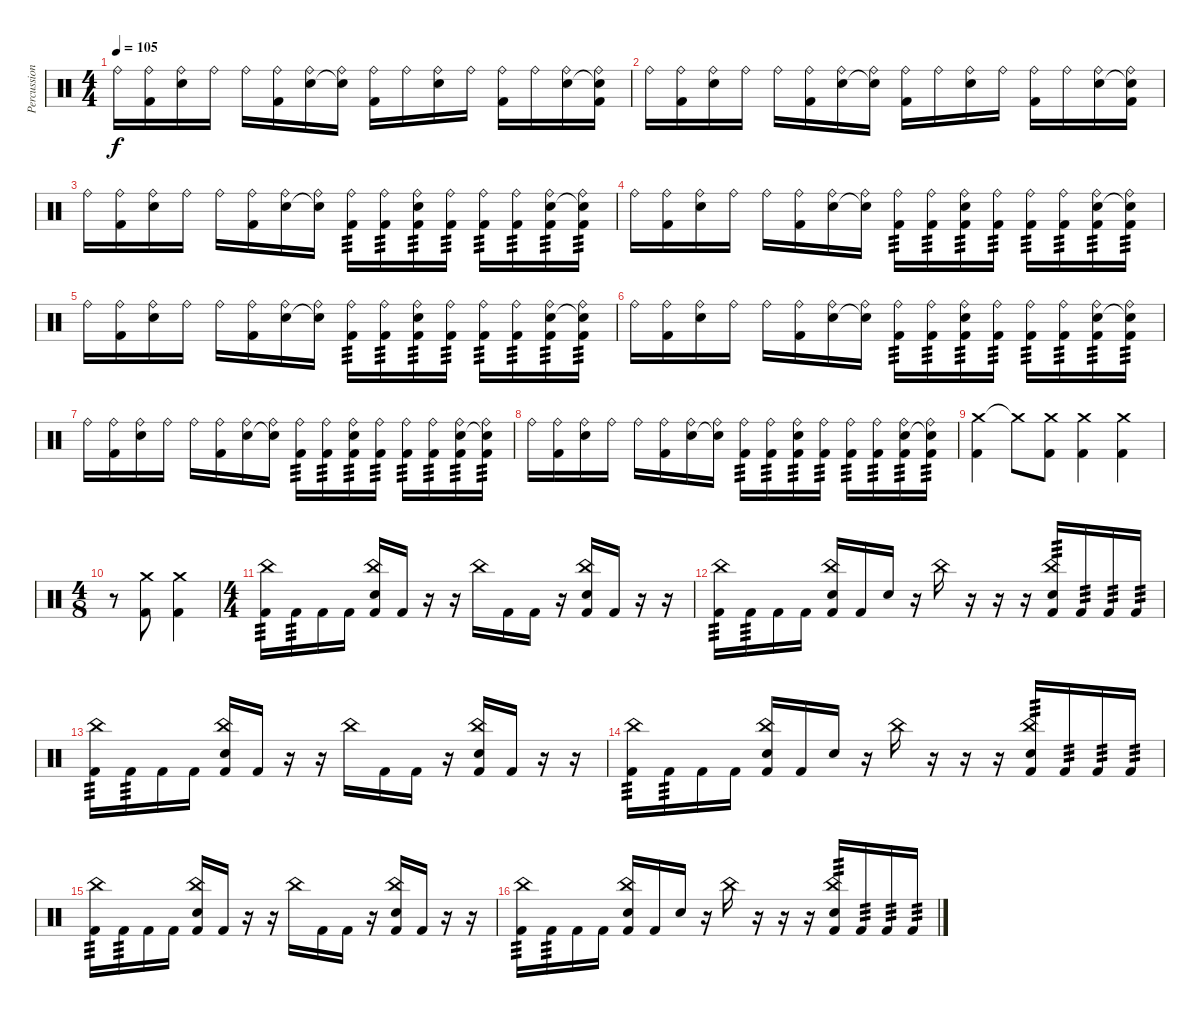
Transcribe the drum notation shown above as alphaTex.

\track ("Percussion" "Percussion") {instrument percussion}
\staff {score}
\articulation defaults
\ts (4 4)
\tempo 105
\clef neutral
\ks c "Ride (bell)".16{dy f}
("Ride (bell)" "Kick (hit) 2").16 ("Ride (bell)" "Snare (hit) 2").16 "Ride (bell)".16 "Ride (bell)".16 ("Ride (bell)" "Kick (hit) 2").16 ("Ride (bell)" "Snare (hit) 2").16 ("Ride (bell)" "Snare (hit)"{t}).16 ("Ride (bell)" "Kick (hit) 2").16 "Ride (bell)".16 ("Ride (bell)" "Snare (hit) 2").16 "Ride (bell)".16 ("Ride (bell)" "Kick (hit) 2").16 "Ride (bell)".16 ("Ride (bell)" "Snare (hit) 2").16 ("Ride (bell)" "Snare (hit)"{t} "Kick (hit) 2").16 |
"Ride (bell)".16 ("Ride (bell)" "Kick (hit) 2").16 ("Ride (bell)" "Snare (hit) 2").16 "Ride (bell)".16 "Ride (bell)".16 ("Ride (bell)" "Kick (hit) 2").16 ("Ride (bell)" "Snare (hit) 2").16 ("Ride (bell)" "Snare (hit)"{t}).16 ("Ride (bell)" "Kick (hit) 2").16 "Ride (bell)".16 ("Ride (bell)" "Snare (hit) 2").16 "Ride (bell)".16 ("Ride (bell)" "Kick (hit) 2").16 "Ride (bell)".16 ("Ride (bell)" "Snare (hit) 2").16 ("Ride (bell)" "Snare (hit)"{t} "Kick (hit) 2").16 |
"Ride (bell)".16 ("Ride (bell)" "Kick (hit) 2").16 ("Ride (bell)" "Snare (hit) 2").16 "Ride (bell)".16 "Ride (bell)".16 ("Ride (bell)" "Kick (hit) 2").16 ("Ride (bell)" "Snare (hit) 2").16 ("Ride (bell)" "Snare (hit)"{t}).16 ("Ride (bell)" "Kick (hit) 2").16{tp 3} ("Ride (bell)" "Kick (hit) 2").16{tp 3} ("Ride (bell)" "Snare (hit) 2" "Kick (hit) 2").16{tp 3} ("Ride (bell)" "Kick (hit) 2").16{tp 3} ("Ride (bell)" "Kick (hit) 2").16{tp 3} ("Ride (bell)" "Kick (hit) 2").16{tp 3} ("Ride (bell)" "Snare (hit) 2" "Kick (hit) 2").16{tp 3} ("Ride (bell)" "Snare (hit)"{t} "Kick (hit) 2").16{tp 3} |
"Ride (bell)".16 ("Ride (bell)" "Kick (hit) 2").16 ("Ride (bell)" "Snare (hit) 2").16 "Ride (bell)".16 "Ride (bell)".16 ("Ride (bell)" "Kick (hit) 2").16 ("Ride (bell)" "Snare (hit) 2").16 ("Ride (bell)" "Snare (hit)"{t}).16 ("Ride (bell)" "Kick (hit) 2").16{tp 3} ("Ride (bell)" "Kick (hit) 2").16{tp 3} ("Ride (bell)" "Snare (hit) 2" "Kick (hit) 2").16{tp 3} ("Ride (bell)" "Kick (hit) 2").16{tp 3} ("Ride (bell)" "Kick (hit) 2").16{tp 3} ("Ride (bell)" "Kick (hit) 2").16{tp 3} ("Ride (bell)" "Snare (hit) 2" "Kick (hit) 2").16{tp 3} ("Ride (bell)" "Snare (hit)"{t} "Kick (hit) 2").16{tp 3} |
"Ride (bell)".16 ("Ride (bell)" "Kick (hit) 2").16 ("Ride (bell)" "Snare (hit) 2").16 "Ride (bell)".16 "Ride (bell)".16 ("Ride (bell)" "Kick (hit) 2").16 ("Ride (bell)" "Snare (hit) 2").16 ("Ride (bell)" "Snare (hit)"{t}).16 ("Ride (bell)" "Kick (hit) 2").16{tp 3} ("Ride (bell)" "Kick (hit) 2").16{tp 3} ("Ride (bell)" "Snare (hit) 2" "Kick (hit) 2").16{tp 3} ("Ride (bell)" "Kick (hit) 2").16{tp 3} ("Ride (bell)" "Kick (hit) 2").16{tp 3} ("Ride (bell)" "Kick (hit) 2").16{tp 3} ("Ride (bell)" "Snare (hit) 2" "Kick (hit) 2").16{tp 3} ("Ride (bell)" "Snare (hit)"{t} "Kick (hit) 2").16{tp 3} |
"Ride (bell)".16 ("Ride (bell)" "Kick (hit) 2").16 ("Ride (bell)" "Snare (hit) 2").16 "Ride (bell)".16 "Ride (bell)".16 ("Ride (bell)" "Kick (hit) 2").16 ("Ride (bell)" "Snare (hit) 2").16 ("Ride (bell)" "Snare (hit)"{t}).16 ("Ride (bell)" "Kick (hit) 2").16{tp 3} ("Ride (bell)" "Kick (hit) 2").16{tp 3} ("Ride (bell)" "Snare (hit) 2" "Kick (hit) 2").16{tp 3} ("Ride (bell)" "Kick (hit) 2").16{tp 3} ("Ride (bell)" "Kick (hit) 2").16{tp 3} ("Ride (bell)" "Kick (hit) 2").16{tp 3} ("Ride (bell)" "Snare (hit) 2" "Kick (hit) 2").16{tp 3} ("Ride (bell)" "Snare (hit)"{t} "Kick (hit) 2").16{tp 3} |
"Ride (bell)".16 ("Ride (bell)" "Kick (hit) 2").16 ("Ride (bell)" "Snare (hit) 2").16 "Ride (bell)".16 "Ride (bell)".16 ("Ride (bell)" "Kick (hit) 2").16 ("Ride (bell)" "Snare (hit) 2").16 ("Ride (bell)" "Snare (hit)"{t}).16 ("Ride (bell)" "Kick (hit) 2").16{tp 3} ("Ride (bell)" "Kick (hit) 2").16{tp 3} ("Ride (bell)" "Snare (hit) 2" "Kick (hit) 2").16{tp 3} ("Ride (bell)" "Kick (hit) 2").16{tp 3} ("Ride (bell)" "Kick (hit) 2").16{tp 3} ("Ride (bell)" "Kick (hit) 2").16{tp 3} ("Ride (bell)" "Snare (hit) 2" "Kick (hit) 2").16{tp 3} ("Ride (bell)" "Snare (hit)"{t} "Kick (hit) 2").16{tp 3} |
"Ride (bell)".16 ("Ride (bell)" "Kick (hit) 2").16 ("Ride (bell)" "Snare (hit) 2").16 "Ride (bell)".16 "Ride (bell)".16 ("Ride (bell)" "Kick (hit) 2").16 ("Ride (bell)" "Snare (hit) 2").16 ("Ride (bell)" "Snare (hit)"{t}).16 ("Ride (bell)" "Kick (hit) 2").16{tp 3} ("Ride (bell)" "Kick (hit) 2").16{tp 3} ("Ride (bell)" "Snare (hit) 2" "Kick (hit) 2").16{tp 3} ("Ride (bell)" "Kick (hit) 2").16{tp 3} ("Ride (bell)" "Kick (hit) 2").16{tp 3} ("Ride (bell)" "Kick (hit) 2").16{tp 3} ("Ride (bell)" "Snare (hit) 2" "Kick (hit) 2").16{tp 3} ("Ride (bell)" "Snare (hit)"{t} "Kick (hit) 2").16{tp 3} |
("Crash medium (hit)" "Kick (hit) 2").4 "Crash medium (hit)"{t}.8 ("Crash medium (hit)" "Kick (hit) 2").8 ("Crash medium (hit)" "Kick (hit) 2").4 ("Crash medium (hit)" "Kick (hit) 2").4 |
\ts (4 8)
r.8 ("Crash medium (hit)" "Kick (hit) 2").8 ("Crash medium (hit)" "Kick (hit) 2").4 |
\ts (4 4)
("China (hit)" "Kick (hit) 2").16{tp 3} "Kick (hit) 2".16{tp 3} "Kick (hit) 2".16 "Kick (hit) 2".16 ("China (hit)" "Electric Snare (hit)" "Kick (hit) 2").16 "Kick (hit) 2".16 r.16 r.16 "China (hit)".16 "Kick (hit) 2".16 "Kick (hit) 2".16 r.16 ("China (hit)" "Electric Snare (hit)" "Kick (hit) 2").16 "Kick (hit) 2".16 r.16 r.16 |
("China (hit)" "Kick (hit) 2").16{tp 3} "Kick (hit) 2".16{tp 3} "Kick (hit) 2".16 "Kick (hit) 2".16 ("China (hit)" "Electric Snare (hit)" "Kick (hit) 2").16 "Kick (hit) 2".16 "Electric Snare (hit)".16 r.16 "China (hit)".16 r.16 r.16 r.16 ("China (hit)" "Electric Snare (hit)" "Kick (hit) 2").16{tp 3} "Kick (hit) 2".16{tp 3} "Kick (hit) 2".16{tp 3} "Kick (hit) 2".16{tp 3} |
("China (hit)" "Kick (hit) 2").16{tp 3} "Kick (hit) 2".16{tp 3} "Kick (hit) 2".16 "Kick (hit) 2".16 ("China (hit)" "Electric Snare (hit)" "Kick (hit) 2").16 "Kick (hit) 2".16 r.16 r.16 "China (hit)".16 "Kick (hit) 2".16 "Kick (hit) 2".16 r.16 ("China (hit)" "Electric Snare (hit)" "Kick (hit) 2").16 "Kick (hit) 2".16 r.16 r.16 |
("China (hit)" "Kick (hit) 2").16{tp 3} "Kick (hit) 2".16{tp 3} "Kick (hit) 2".16 "Kick (hit) 2".16 ("China (hit)" "Electric Snare (hit)" "Kick (hit) 2").16 "Kick (hit) 2".16 "Electric Snare (hit)".16 r.16 "China (hit)".16 r.16 r.16 r.16 ("China (hit)" "Electric Snare (hit)" "Kick (hit) 2").16{tp 3} "Kick (hit) 2".16{tp 3} "Kick (hit) 2".16{tp 3} "Kick (hit) 2".16{tp 3} |
("China (hit)" "Kick (hit) 2").16{tp 3} "Kick (hit) 2".16{tp 3} "Kick (hit) 2".16 "Kick (hit) 2".16 ("China (hit)" "Electric Snare (hit)" "Kick (hit) 2").16 "Kick (hit) 2".16 r.16 r.16 "China (hit)".16 "Kick (hit) 2".16 "Kick (hit) 2".16 r.16 ("China (hit)" "Electric Snare (hit)" "Kick (hit) 2").16 "Kick (hit) 2".16 r.16 r.16 |
("China (hit)" "Kick (hit) 2").16{tp 3} "Kick (hit) 2".16{tp 3} "Kick (hit) 2".16 "Kick (hit) 2".16 ("China (hit)" "Electric Snare (hit)" "Kick (hit) 2").16 "Kick (hit) 2".16 "Electric Snare (hit)".16 r.16 "China (hit)".16 r.16 r.16 r.16 ("China (hit)" "Electric Snare (hit)" "Kick (hit) 2").16{tp 3} "Kick (hit) 2".16{tp 3} "Kick (hit) 2".16{tp 3} "Kick (hit) 2".16{tp 3}
